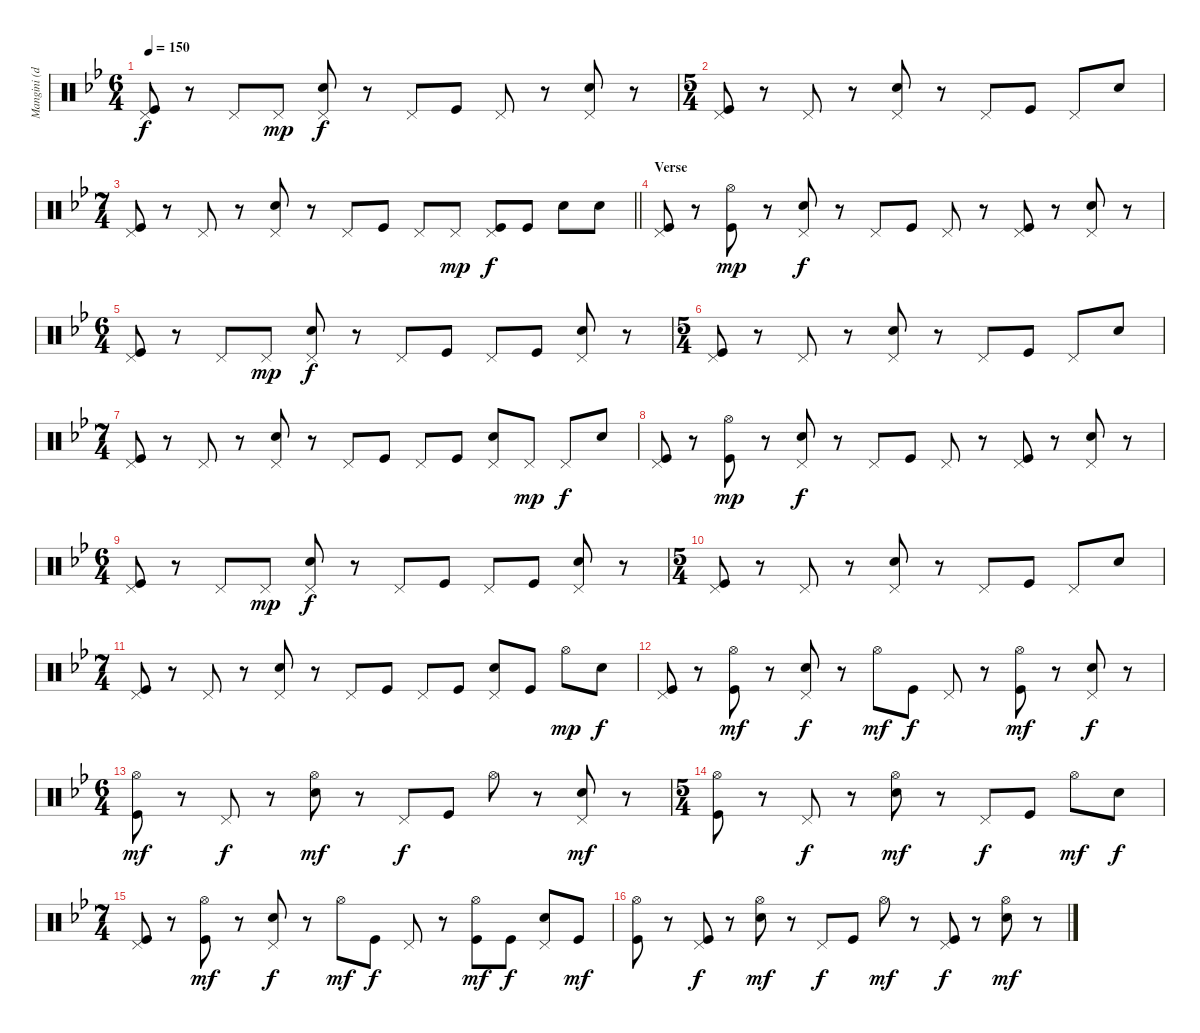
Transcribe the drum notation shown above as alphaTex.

\track ("Mangini (drums)" "Mangini (d") {instrument percussion}
\staff {score}
\articulation defaults
\ts (6 4)
\tempo 150
\clef neutral
\ks gminor
("Pedal Hi-Hat (hit)" "Kick (hit)").8{dy f} r.8 "Pedal Hi-Hat (hit)".8 "Pedal Hi-Hat (hit)".8{dy mp} ("Pedal Hi-Hat (hit)" "Snare (hit) 2").8{dy f} r.8 "Pedal Hi-Hat (hit)".8 "Kick (hit)".8 "Pedal Hi-Hat (hit)".8 r.8 ("Pedal Hi-Hat (hit)" "Snare (hit) 2").8 r.8 |
\ts (5 4)
("Pedal Hi-Hat (hit)" "Kick (hit)").8 r.8 "Pedal Hi-Hat (hit)".8 r.8 ("Pedal Hi-Hat (hit)" "Snare (hit) 2").8 r.8 "Pedal Hi-Hat (hit)".8 "Kick (hit)".8 "Pedal Hi-Hat (hit)".8 "Snare (hit) 2".8 |
\ts (7 4)
\barLineRight lightlight
("Pedal Hi-Hat (hit)" "Kick (hit)").8 r.8 "Pedal Hi-Hat (hit)".8 r.8 ("Pedal Hi-Hat (hit)" "Snare (hit) 2").8 r.8 "Pedal Hi-Hat (hit)".8 "Kick (hit)".8 "Pedal Hi-Hat (hit)".8 "Pedal Hi-Hat (hit)".8{dy mp} ("Pedal Hi-Hat (hit)" "Kick (hit)").8{dy f} "Kick (hit)".8 "Snare (hit) 2".8 "Snare (hit) 2".8 |
\section ("" "Verse")
("Pedal Hi-Hat (hit)" "Kick (hit)").8 r.8 ("Hi-Hat (open)" "Kick (hit)").8{dy mp} r.8 ("Pedal Hi-Hat (hit)" "Snare (hit) 2").8{dy f} r.8 "Pedal Hi-Hat (hit)".8 "Kick (hit)".8 "Pedal Hi-Hat (hit)".8 r.8 ("Pedal Hi-Hat (hit)" "Kick (hit)").8 r.8 ("Pedal Hi-Hat (hit)" "Snare (hit) 2").8 r.8 |
\ts (6 4)
("Pedal Hi-Hat (hit)" "Kick (hit)").8 r.8 "Pedal Hi-Hat (hit)".8 "Pedal Hi-Hat (hit)".8{dy mp} ("Pedal Hi-Hat (hit)" "Snare (hit) 2").8{dy f} r.8 "Pedal Hi-Hat (hit)".8 "Kick (hit)".8 "Pedal Hi-Hat (hit)".8 "Kick (hit)".8 ("Pedal Hi-Hat (hit)" "Snare (hit) 2").8 r.8 |
\ts (5 4)
("Pedal Hi-Hat (hit)" "Kick (hit)").8 r.8 "Pedal Hi-Hat (hit)".8 r.8 ("Pedal Hi-Hat (hit)" "Snare (hit) 2").8 r.8 "Pedal Hi-Hat (hit)".8 "Kick (hit)".8 "Pedal Hi-Hat (hit)".8 "Snare (hit) 2".8 |
\ts (7 4)
("Pedal Hi-Hat (hit)" "Kick (hit)").8 r.8 "Pedal Hi-Hat (hit)".8 r.8 ("Pedal Hi-Hat (hit)" "Snare (hit) 2").8 r.8 "Pedal Hi-Hat (hit)".8 "Kick (hit)".8 "Pedal Hi-Hat (hit)".8 "Kick (hit)".8 ("Pedal Hi-Hat (hit)" "Snare (hit) 2").8 "Pedal Hi-Hat (hit)".8{dy mp} "Pedal Hi-Hat (hit)".8{dy f} "Snare (hit) 2".8 |
("Pedal Hi-Hat (hit)" "Kick (hit)").8 r.8 ("Hi-Hat (open)" "Kick (hit)").8{dy mp} r.8 ("Pedal Hi-Hat (hit)" "Snare (hit) 2").8{dy f} r.8 "Pedal Hi-Hat (hit)".8 "Kick (hit)".8 "Pedal Hi-Hat (hit)".8 r.8 ("Pedal Hi-Hat (hit)" "Kick (hit)").8 r.8 ("Pedal Hi-Hat (hit)" "Snare (hit) 2").8 r.8 |
\ts (6 4)
("Pedal Hi-Hat (hit)" "Kick (hit)").8 r.8 "Pedal Hi-Hat (hit)".8 "Pedal Hi-Hat (hit)".8{dy mp} ("Pedal Hi-Hat (hit)" "Snare (hit) 2").8{dy f} r.8 "Pedal Hi-Hat (hit)".8 "Kick (hit)".8 "Pedal Hi-Hat (hit)".8 "Kick (hit)".8 ("Pedal Hi-Hat (hit)" "Snare (hit) 2").8 r.8 |
\ts (5 4)
("Pedal Hi-Hat (hit)" "Kick (hit)").8 r.8 "Pedal Hi-Hat (hit)".8 r.8 ("Pedal Hi-Hat (hit)" "Snare (hit) 2").8 r.8 "Pedal Hi-Hat (hit)".8 "Kick (hit)".8 "Pedal Hi-Hat (hit)".8 "Snare (hit) 2".8 |
\ts (7 4)
("Pedal Hi-Hat (hit)" "Kick (hit)").8 r.8 "Pedal Hi-Hat (hit)".8 r.8 ("Pedal Hi-Hat (hit)" "Snare (hit) 2").8 r.8 "Pedal Hi-Hat (hit)".8 "Kick (hit)".8 "Pedal Hi-Hat (hit)".8 "Kick (hit)".8 ("Pedal Hi-Hat (hit)" "Snare (hit) 2").8 "Kick (hit)".8 "Hi-Hat (open)".8{dy mp} "Snare (hit) 2".8{dy f} |
("Pedal Hi-Hat (hit)" "Kick (hit)").8 r.8 ("Hi-Hat (open)" "Kick (hit)").8{dy mf} r.8 ("Pedal Hi-Hat (hit)" "Snare (hit) 2").8{dy f} r.8 "Hi-Hat (open)".8{dy mf} "Kick (hit)".8{dy f} "Pedal Hi-Hat (hit)".8 r.8 ("Hi-Hat (open)" "Kick (hit)").8{dy mf} r.8 ("Pedal Hi-Hat (hit)" "Snare (hit) 2").8{dy f} r.8 |
\ts (6 4)
("Hi-Hat (open)" "Kick (hit)").8{dy mf} r.8 "Pedal Hi-Hat (hit)".8{dy f} r.8 ("Hi-Hat (open)" "Snare (hit) 2").8{dy mf} r.8 "Pedal Hi-Hat (hit)".8{dy f} "Kick (hit)".8 "Hi-Hat (open)".8 r.8 ("Pedal Hi-Hat (hit)" "Snare (hit) 2").8{dy mf} r.8 |
\ts (5 4)
("Hi-Hat (open)" "Kick (hit)").8 r.8 "Pedal Hi-Hat (hit)".8{dy f} r.8 ("Hi-Hat (open)" "Snare (hit) 2").8{dy mf} r.8 "Pedal Hi-Hat (hit)".8{dy f} "Kick (hit)".8 "Hi-Hat (open)".8{dy mf} "Snare (hit) 2".8{dy f} |
\ts (7 4)
("Pedal Hi-Hat (hit)" "Kick (hit)").8 r.8 ("Hi-Hat (open)" "Kick (hit)").8{dy mf} r.8 ("Pedal Hi-Hat (hit)" "Snare (hit) 2").8{dy f} r.8 "Hi-Hat (open)".8{dy mf} "Kick (hit)".8{dy f} "Pedal Hi-Hat (hit)".8 r.8 ("Hi-Hat (open)" "Kick (hit)").8{dy mf} "Kick (hit)".8{dy f} ("Pedal Hi-Hat (hit)" "Snare (hit) 2").8 "Kick (hit)".8{dy mf} |
("Hi-Hat (open)" "Kick (hit)").8 r.8 ("Pedal Hi-Hat (hit)" "Kick (hit)").8{dy f} r.8 ("Hi-Hat (open)" "Snare (hit) 2").8{dy mf} r.8 "Pedal Hi-Hat (hit)".8{dy f} "Kick (hit)".8 "Hi-Hat (open)".8{dy mf} r.8 ("Pedal Hi-Hat (hit)" "Kick (hit)").8{dy f} r.8 ("Hi-Hat (open)" "Snare (hit) 2").8{dy mf} r.8
